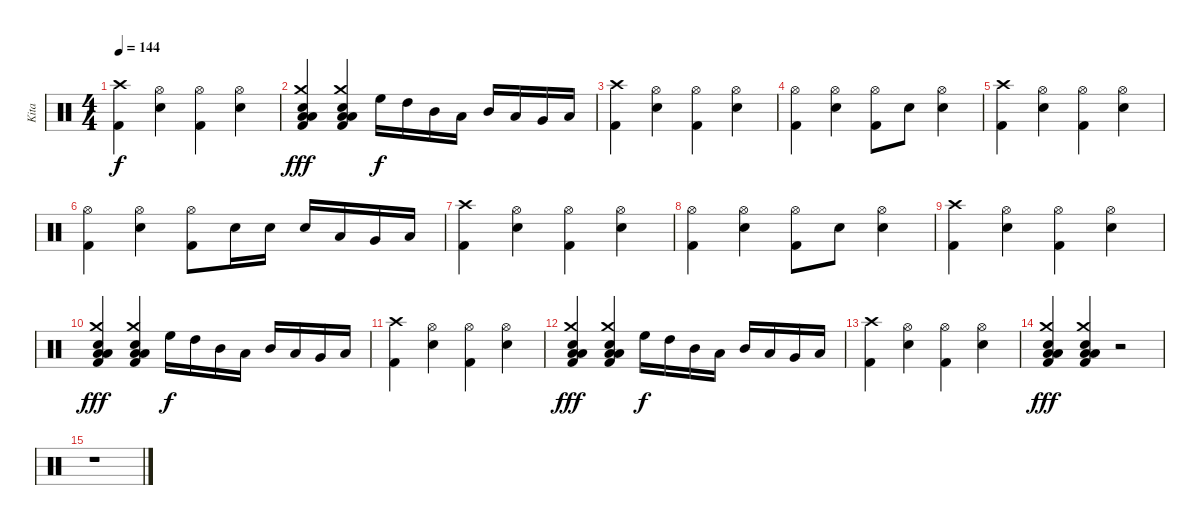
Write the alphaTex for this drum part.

\track ("Kita" "Kita") {instrument percussion}
\staff {score}
\articulation defaults
\ts (4 4)
\tempo 144
\clef neutral
\ks c
("Kick (hit) 2" "Crash high (hit)").4{dy f} ("Hi-Hat (open)" "Snare (hit) 2").4 ("Kick (hit) 2" "Hi-Hat (open)").4 ("Hi-Hat (open)" "Snare (hit) 2").4 |
("Kick (hit) 2" "Crash medium (hit)" "Low Floor Tom (hit)" "Low Floor Tom (hit)" "Snare (hit) 2").4{dy fff} ("Kick (hit) 2" "Crash medium (hit)" "Low Floor Tom (hit)" "Low Floor Tom (hit)" "Snare (hit) 2").4 "High Floor Tom (hit)".16{dy f} "High Tom (hit)".16 "Mid Tom (hit)".16 "Low Tom (hit)".16 "Mid Tom (hit)".16 "Low Tom (hit)".16 "Very Low Tom (hit)".16 "Low Floor Tom (hit)".16 |
("Kick (hit) 2" "Crash high (hit)").4 ("Hi-Hat (open)" "Snare (hit) 2").4 ("Kick (hit) 2" "Hi-Hat (open)").4 ("Hi-Hat (open)" "Snare (hit) 2").4 |
("Kick (hit) 2" "Hi-Hat (open)").4 ("Hi-Hat (open)" "Snare (hit) 2").4 ("Kick (hit) 2" "Hi-Hat (open)").8 "Snare (hit) 2".8 ("Hi-Hat (open)" "Snare (hit) 2").4 |
("Kick (hit) 2" "Crash high (hit)").4 ("Hi-Hat (open)" "Snare (hit) 2").4 ("Kick (hit) 2" "Hi-Hat (open)").4 ("Hi-Hat (open)" "Snare (hit) 2").4 |
("Kick (hit) 2" "Hi-Hat (open)").4 ("Hi-Hat (open)" "Snare (hit) 2").4 ("Kick (hit) 2" "Hi-Hat (open)").8 "Snare (hit) 2".16 "Snare (hit) 2".16 "Snare (hit) 2".16 "Low Tom (hit)".16 "Very Low Tom (hit)".16 "Low Floor Tom (hit)".16 |
("Kick (hit) 2" "Crash high (hit)").4 ("Hi-Hat (open)" "Snare (hit) 2").4 ("Kick (hit) 2" "Hi-Hat (open)").4 ("Hi-Hat (open)" "Snare (hit) 2").4 |
("Kick (hit) 2" "Hi-Hat (open)").4 ("Hi-Hat (open)" "Snare (hit) 2").4 ("Kick (hit) 2" "Hi-Hat (open)").8 "Snare (hit) 2".8 ("Hi-Hat (open)" "Snare (hit) 2").4 |
("Kick (hit) 2" "Crash high (hit)").4 ("Hi-Hat (open)" "Snare (hit) 2").4 ("Kick (hit) 2" "Hi-Hat (open)").4 ("Hi-Hat (open)" "Snare (hit) 2").4 |
("Kick (hit) 2" "Crash medium (hit)" "Low Floor Tom (hit)" "Low Floor Tom (hit)" "Snare (hit) 2").4{dy fff} ("Kick (hit) 2" "Crash medium (hit)" "Low Floor Tom (hit)" "Low Floor Tom (hit)" "Snare (hit) 2").4 "High Floor Tom (hit)".16{dy f} "High Tom (hit)".16 "Mid Tom (hit)".16 "Low Tom (hit)".16 "Mid Tom (hit)".16 "Low Tom (hit)".16 "Very Low Tom (hit)".16 "Low Floor Tom (hit)".16 |
("Kick (hit) 2" "Crash high (hit)").4 ("Hi-Hat (open)" "Snare (hit) 2").4 ("Kick (hit) 2" "Hi-Hat (open)").4 ("Hi-Hat (open)" "Snare (hit) 2").4 |
("Kick (hit) 2" "Crash medium (hit)" "Low Floor Tom (hit)" "Low Floor Tom (hit)" "Snare (hit) 2").4{dy fff} ("Kick (hit) 2" "Crash medium (hit)" "Low Floor Tom (hit)" "Low Floor Tom (hit)" "Snare (hit) 2").4 "High Floor Tom (hit)".16{dy f} "High Tom (hit)".16 "Mid Tom (hit)".16 "Low Tom (hit)".16 "Mid Tom (hit)".16 "Low Tom (hit)".16 "Very Low Tom (hit)".16 "Low Floor Tom (hit)".16 |
("Kick (hit) 2" "Crash high (hit)").4 ("Hi-Hat (open)" "Snare (hit) 2").4 ("Kick (hit) 2" "Hi-Hat (open)").4 ("Hi-Hat (open)" "Snare (hit) 2").4 |
("Kick (hit) 2" "Crash medium (hit)" "Low Floor Tom (hit)" "Low Floor Tom (hit)" "Snare (hit) 2").4{dy fff} ("Kick (hit) 2" "Crash medium (hit)" "Low Floor Tom (hit)" "Low Floor Tom (hit)" "Snare (hit) 2").4 r.2 |
r.1
